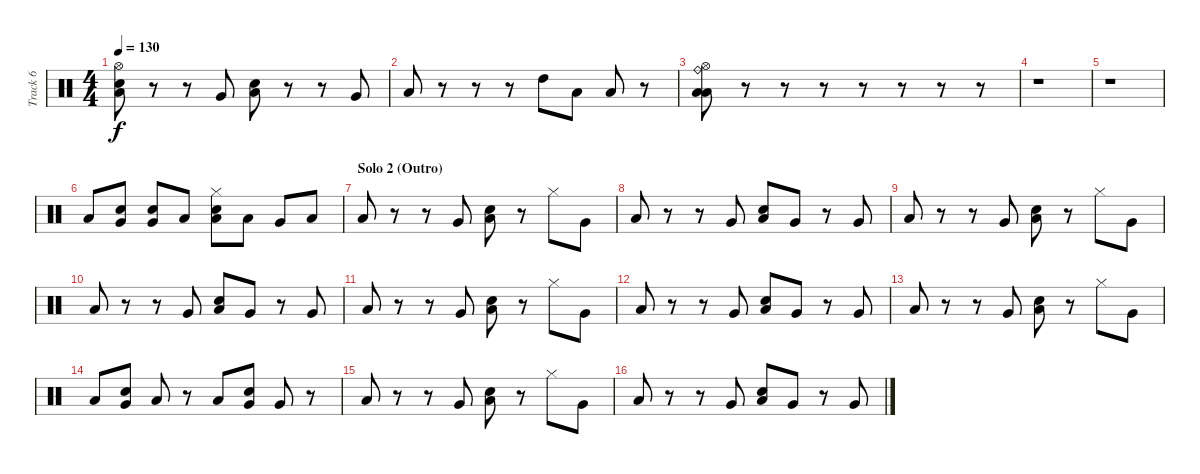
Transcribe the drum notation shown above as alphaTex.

\track ("Track 6" "Track 6") {instrument percussion}
\staff {score}
\articulation defaults
\ts (4 4)
\tempo 130
\clef neutral
\ks c
("Low Floor Tom (hit)" "Snare (hit) 2" "Hi-Hat (open)").8{dy f} r.8 r.8 "Very Low Tom (hit)".8 ("Low Tom (hit)" "Snare (hit) 2").8 r.8 r.8 "Very Low Tom (hit)".8 |
"Low Floor Tom (hit)".8 r.8 r.8 r.8 "High Tom (hit)".8 "Low Tom (hit)".8 "Low Floor Tom (hit)".8 r.8 |
("Low Floor Tom (hit)" "Low Tom (hit)" "Ride (bell)" "Hi-Hat (open)").8 r.8 r.8 r.8 r.8 r.8 r.8 r.8 |
r.1 |
r.1 |
"Low Tom (hit)".8 ("Very Low Tom (hit)" "Snare (hit) 2").8 ("Very Low Tom (hit)" "Snare (hit) 2").8 "Low Floor Tom (hit)".8 ("Low Tom (hit)" "Snare (hit) 2" "Hi-Hat (closed)").8 "Low Tom (hit)".8 "Very Low Tom (hit)".8 "Low Floor Tom (hit)".8 |
\section ("" "Solo 2 (Outro)")
"Low Floor Tom (hit)".8 r.8 r.8 "Very Low Tom (hit)".8 ("Low Tom (hit)" "Snare (hit) 2").8 r.8 "Hi-Hat (closed)".8 "Very Low Tom (hit)".8 |
"Low Floor Tom (hit)".8 r.8 r.8 "Very Low Tom (hit)".8 ("Low Tom (hit)" "Snare (hit) 2").8 "Very Low Tom (hit)".8 r.8 "Very Low Tom (hit)".8 |
"Low Floor Tom (hit)".8 r.8 r.8 "Very Low Tom (hit)".8 ("Low Tom (hit)" "Snare (hit) 2").8 r.8 "Hi-Hat (closed)".8 "Very Low Tom (hit)".8 |
"Low Floor Tom (hit)".8 r.8 r.8 "Very Low Tom (hit)".8 ("Low Tom (hit)" "Snare (hit) 2").8 "Very Low Tom (hit)".8 r.8 "Very Low Tom (hit)".8 |
"Low Floor Tom (hit)".8 r.8 r.8 "Very Low Tom (hit)".8 ("Low Tom (hit)" "Snare (hit) 2").8 r.8 "Hi-Hat (closed)".8 "Very Low Tom (hit)".8 |
"Low Floor Tom (hit)".8 r.8 r.8 "Very Low Tom (hit)".8 ("Low Tom (hit)" "Snare (hit) 2").8 "Very Low Tom (hit)".8 r.8 "Very Low Tom (hit)".8 |
"Low Floor Tom (hit)".8 r.8 r.8 "Very Low Tom (hit)".8 ("Low Tom (hit)" "Snare (hit) 2").8 r.8 "Hi-Hat (closed)".8 "Very Low Tom (hit)".8 |
"Low Floor Tom (hit)".8 ("Very Low Tom (hit)" "Snare (hit) 2").8 "Low Floor Tom (hit)".8 r.8 "Low Tom (hit)".8 ("Very Low Tom (hit)" "Snare (hit) 2").8 "Very Low Tom (hit)".8 r.8 |
"Low Floor Tom (hit)".8 r.8 r.8 "Very Low Tom (hit)".8 ("Low Tom (hit)" "Snare (hit) 2").8 r.8 "Hi-Hat (closed)".8 "Very Low Tom (hit)".8 |
"Low Floor Tom (hit)".8 r.8 r.8 "Very Low Tom (hit)".8 ("Low Tom (hit)" "Snare (hit) 2").8 "Very Low Tom (hit)".8 r.8 "Very Low Tom (hit)".8
